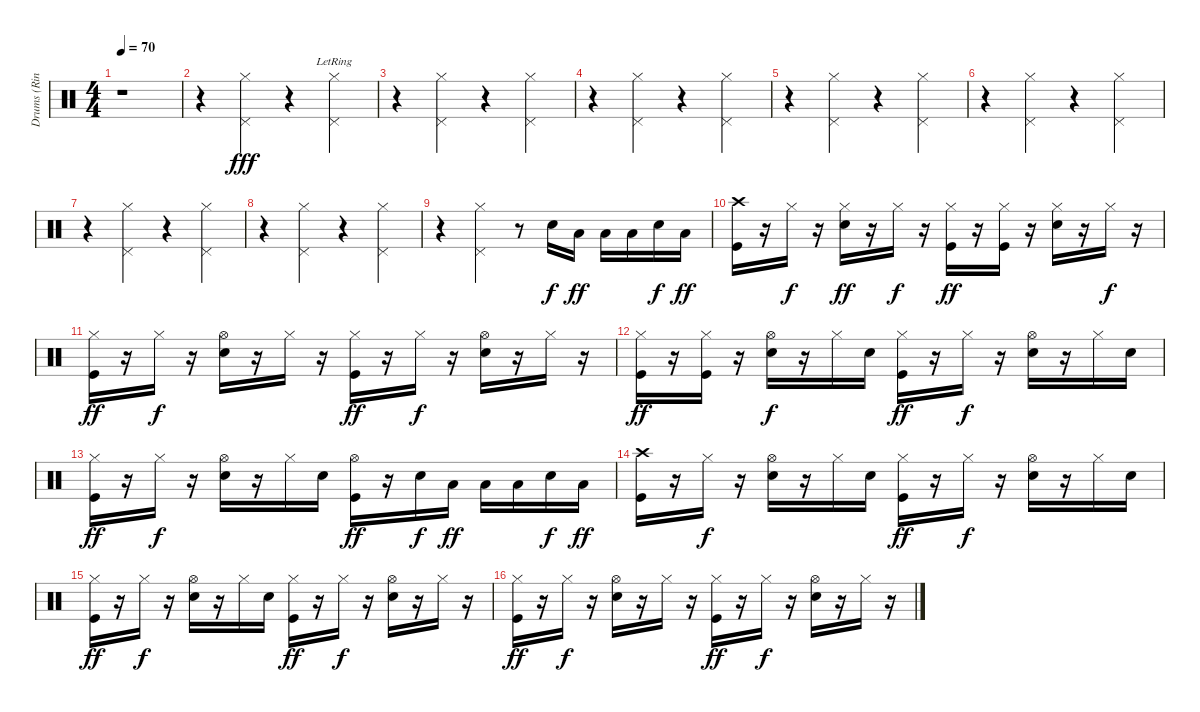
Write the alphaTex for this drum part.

\track ("Drums (Ringo)" "Drums (Rin") {instrument percussion}
\staff {score}
\articulation defaults
\ts (4 4)
\tempo 70
\clef neutral
\ks c
r.1{dy fff} |
r.4 ("Pedal Hi-Hat (hit)" "Hi-Hat (closed)").4 r.4 ("Pedal Hi-Hat (hit)"{lr} "Hi-Hat (closed)").4 |
r.4 ("Pedal Hi-Hat (hit)" "Hi-Hat (closed)").4 r.4 ("Pedal Hi-Hat (hit)" "Hi-Hat (closed)").4 |
r.4 ("Pedal Hi-Hat (hit)" "Hi-Hat (closed)").4 r.4 ("Pedal Hi-Hat (hit)" "Hi-Hat (closed)").4 |
r.4 ("Pedal Hi-Hat (hit)" "Hi-Hat (closed)").4 r.4 ("Pedal Hi-Hat (hit)" "Hi-Hat (closed)").4 |
r.4 ("Pedal Hi-Hat (hit)" "Hi-Hat (closed)").4 r.4 ("Pedal Hi-Hat (hit)" "Hi-Hat (closed)").4 |
r.4 ("Pedal Hi-Hat (hit)" "Hi-Hat (closed)").4 r.4 ("Pedal Hi-Hat (hit)" "Hi-Hat (closed)").4 |
r.4 ("Pedal Hi-Hat (hit)" "Hi-Hat (closed)").4 r.4 ("Pedal Hi-Hat (hit)" "Hi-Hat (closed)").4 |
r.4 ("Pedal Hi-Hat (hit)" "Hi-Hat (closed)").4 r.8 "Snare (hit) 2".16{dy f} "Low Tom (hit)".16{dy ff} "Low Tom (hit)".16 "Low Tom (hit)".16 "Snare (hit) 2".16{dy f} "Low Tom (hit)".16{dy ff} |
("Kick (hit)" "Crash high (hit)").16 r.16 "Hi-Hat (closed)".16{dy f} r.16 ("Hi-Hat (closed)" "Snare (hit) 2").16{dy ff} r.16 "Hi-Hat (closed)".16{dy f} r.16 ("Hi-Hat (closed)" "Kick (hit)").16{dy ff} r.16 ("Hi-Hat (closed)" "Kick (hit)").16 r.16 ("Hi-Hat (closed)" "Snare (hit) 2").16 r.16 "Hi-Hat (closed)".16{dy f} r.16 |
("Hi-Hat (closed)" "Kick (hit)").16{dy ff} r.16 "Hi-Hat (closed)".16{dy f} r.16 ("Hi-Hat (open)" "Snare (hit) 2").16 r.16 "Hi-Hat (closed)".16 r.16 ("Hi-Hat (closed)" "Kick (hit)").16{dy ff} r.16 "Hi-Hat (closed)".16{dy f} r.16 ("Hi-Hat (open)" "Snare (hit) 2").16 r.16 "Hi-Hat (closed)".16 r.16 |
("Hi-Hat (closed)" "Kick (hit)").16{dy ff} r.16 ("Hi-Hat (closed)" "Kick (hit)").16 r.16 ("Hi-Hat (open)" "Snare (hit) 2").16{dy f} r.16 "Hi-Hat (closed)".16 "Snare (hit) 2".16 ("Hi-Hat (closed)" "Kick (hit)").16{dy ff} r.16 "Hi-Hat (closed)".16{dy f} r.16 ("Hi-Hat (open)" "Snare (hit) 2").16 r.16 "Hi-Hat (closed)".16 "Snare (hit) 2".16 |
("Hi-Hat (closed)" "Kick (hit)").16{dy ff} r.16 "Hi-Hat (closed)".16{dy f} r.16 ("Hi-Hat (open)" "Snare (hit) 2").16 r.16 "Hi-Hat (closed)".16 "Snare (hit) 2".16 ("Hi-Hat (open)" "Kick (hit)").16{dy ff} r.16 "Snare (hit) 2".16{dy f} "Low Tom (hit)".16{dy ff} "Low Tom (hit)".16 "Low Tom (hit)".16 "Snare (hit) 2".16{dy f} "Low Tom (hit)".16{dy ff} |
("Kick (hit)" "Crash high (hit)").16 r.16 "Hi-Hat (closed)".16{dy f} r.16 ("Hi-Hat (open)" "Snare (hit) 2").16 r.16 "Hi-Hat (closed)".16 "Snare (hit) 2".16 ("Hi-Hat (closed)" "Kick (hit)").16{dy ff} r.16 "Hi-Hat (closed)".16{dy f} r.16 ("Hi-Hat (open)" "Snare (hit) 2").16 r.16 "Hi-Hat (closed)".16 "Snare (hit) 2".16 |
("Hi-Hat (closed)" "Kick (hit)").16{dy ff} r.16 "Hi-Hat (closed)".16{dy f} r.16 ("Hi-Hat (open)" "Snare (hit) 2").16 r.16 "Hi-Hat (closed)".16 "Snare (hit) 2".16 ("Hi-Hat (closed)" "Kick (hit)").16{dy ff} r.16 "Hi-Hat (closed)".16{dy f} r.16 ("Hi-Hat (open)" "Snare (hit) 2").16 r.16 "Hi-Hat (closed)".16 r.16 |
("Hi-Hat (closed)" "Kick (hit)").16{dy ff} r.16 "Hi-Hat (closed)".16{dy f} r.16 ("Hi-Hat (open)" "Snare (hit) 2").16 r.16 "Hi-Hat (closed)".16 r.16 ("Hi-Hat (closed)" "Kick (hit)").16{dy ff} r.16 "Hi-Hat (closed)".16{dy f} r.16 ("Hi-Hat (open)" "Snare (hit) 2").16 r.16 "Hi-Hat (closed)".16 r.16
